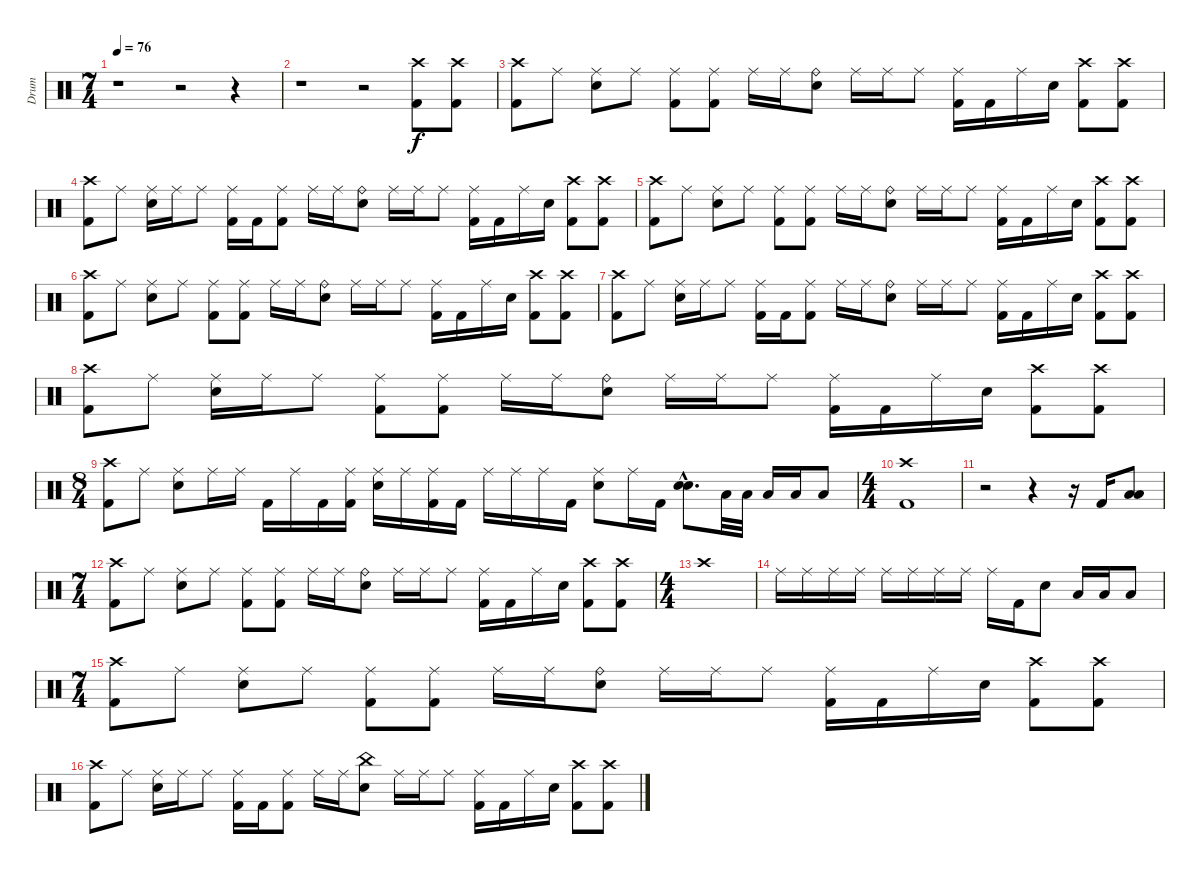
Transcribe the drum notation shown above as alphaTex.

\track ("Drum" "Drum") {instrument percussion}
\staff {score}
\articulation defaults
\ts (7 4)
\tempo 76
\clef neutral
\ks c
r.1{dy f} r.2 r.4 |
r.1 r.2 ("Crash high (hit)" "Kick (hit) 2").8 ("Crash high (hit)" "Kick (hit) 2").8 |
("Crash high (hit)" "Kick (hit) 2").8 "Ride (middle)".8 ("Ride (middle)" "Electric Snare (hit)").8 "Ride (middle)".8 ("Ride (middle)" "Kick (hit) 2").8 ("Ride (middle)" "Kick (hit) 2").8 "Ride (middle)".16 "Ride (middle)".16 ("Ride (bell)" "Electric Snare (hit)").8 "Ride (middle)".16 "Ride (middle)".16 "Ride (middle)".8 ("Ride (middle)" "Kick (hit) 2").16 "Kick (hit) 2".16 "Ride (middle)".16 "Electric Snare (hit)".16 ("Crash high (hit)" "Kick (hit) 2").8 ("Crash high (hit)" "Kick (hit) 2").8 |
("Crash high (hit)" "Kick (hit) 2").8 "Ride (middle)".8 ("Ride (middle)" "Electric Snare (hit)").16 "Ride (middle)".16 "Ride (middle)".8 ("Ride (middle)" "Kick (hit) 2").16 "Kick (hit) 2".16 ("Ride (middle)" "Kick (hit) 2").8 "Ride (middle)".16 "Ride (middle)".16 ("Ride (bell)" "Electric Snare (hit)").8 "Ride (middle)".16 "Ride (middle)".16 "Ride (middle)".8 ("Ride (middle)" "Kick (hit) 2").16 "Kick (hit) 2".16 "Ride (middle)".16 "Electric Snare (hit)".16 ("Crash high (hit)" "Kick (hit) 2").8 ("Crash high (hit)" "Kick (hit) 2").8 |
("Crash high (hit)" "Kick (hit) 2").8 "Ride (middle)".8 ("Ride (middle)" "Electric Snare (hit)").8 "Ride (middle)".8 ("Ride (middle)" "Kick (hit) 2").8 ("Ride (middle)" "Kick (hit) 2").8 "Ride (middle)".16 "Ride (middle)".16 ("Ride (bell)" "Electric Snare (hit)").8 "Ride (middle)".16 "Ride (middle)".16 "Ride (middle)".8 ("Ride (middle)" "Kick (hit) 2").16 "Kick (hit) 2".16 "Ride (middle)".16 "Electric Snare (hit)".16 ("Crash high (hit)" "Kick (hit) 2").8 ("Crash high (hit)" "Kick (hit) 2").8 |
("Crash high (hit)" "Kick (hit) 2").8 "Ride (middle)".8 ("Ride (middle)" "Electric Snare (hit)").8 "Ride (middle)".8 ("Ride (middle)" "Kick (hit) 2").8 ("Ride (middle)" "Kick (hit) 2").8 "Ride (middle)".16 "Ride (middle)".16 ("Ride (bell)" "Electric Snare (hit)").8 "Ride (middle)".16 "Ride (middle)".16 "Ride (middle)".8 ("Ride (middle)" "Kick (hit) 2").16 "Kick (hit) 2".16 "Ride (middle)".16 "Electric Snare (hit)".16 ("Crash high (hit)" "Kick (hit) 2").8 ("Crash high (hit)" "Kick (hit) 2").8 |
("Crash high (hit)" "Kick (hit) 2").8 "Ride (middle)".8 ("Ride (middle)" "Electric Snare (hit)").16 "Ride (middle)".16 "Ride (middle)".8 ("Ride (middle)" "Kick (hit) 2").16 "Kick (hit) 2".16 ("Ride (middle)" "Kick (hit) 2").8 "Ride (middle)".16 "Ride (middle)".16 ("Ride (bell)" "Electric Snare (hit)").8 "Ride (middle)".16 "Ride (middle)".16 "Ride (middle)".8 ("Ride (middle)" "Kick (hit) 2").16 "Kick (hit) 2".16 "Ride (middle)".16 "Electric Snare (hit)".16 ("Crash high (hit)" "Kick (hit) 2").8 ("Crash high (hit)" "Kick (hit) 2").8 |
("Crash high (hit)" "Kick (hit) 2").8 "Ride (middle)".8 ("Ride (middle)" "Electric Snare (hit)").16 "Ride (middle)".16 "Ride (middle)".8 ("Ride (middle)" "Kick (hit) 2").8 ("Ride (middle)" "Kick (hit) 2").8 "Ride (middle)".16 "Ride (middle)".16 ("Ride (bell)" "Electric Snare (hit)").8 "Ride (middle)".16 "Ride (middle)".16 "Ride (middle)".8 ("Ride (middle)" "Kick (hit) 2").16 "Kick (hit) 2".16 "Ride (middle)".16 "Electric Snare (hit)".16 ("Crash high (hit)" "Kick (hit) 2").8 ("Crash high (hit)" "Kick (hit) 2").8 |
\ts (8 4)
("Crash high (hit)" "Kick (hit) 2").8 "Ride (middle)".8 ("Ride (middle)" "Electric Snare (hit)").8 "Ride (middle)".16 "Ride (middle)".16 "Kick (hit) 2".16 "Ride (middle)".16 "Kick (hit) 2".16 ("Ride (middle)" "Kick (hit) 2").16 ("Ride (middle)" "Electric Snare (hit)").16 "Ride (middle)".16 ("Ride (middle)" "Kick (hit) 2").16 "Kick (hit) 2".16 "Ride (middle)".16 "Ride (middle)".16 "Ride (middle)".16 "Kick (hit) 2".16 ("Ride (middle)" "Electric Snare (hit)").8 "Ride (middle)".16 "Kick (hit) 2".16 ("Electric Snare (hit)"{hac} "Electric Snare (hit)"{hac}).8{d} "Low Floor Tom (hit)".32 "Low Floor Tom (hit)".32 "Low Floor Tom (hit)".16 "Low Tom (hit)".16 "Low Tom (hit)".8 |
\ts (4 4)
("Crash high (hit)" "Kick (hit) 2").1 |
r.2 r.4 r.16 "Kick (hit) 2".16 ("Low Tom (hit)" "Low Floor Tom (hit)").8 |
\ts (7 4)
("Crash high (hit)" "Kick (hit) 2").8 "Ride (middle)".8 ("Ride (middle)" "Electric Snare (hit)").8 "Ride (middle)".8 ("Ride (middle)" "Kick (hit) 2").8 ("Ride (middle)" "Kick (hit) 2").8 "Ride (middle)".16 "Ride (middle)".16 ("Ride (bell)" "Electric Snare (hit)").8 "Ride (middle)".16 "Ride (middle)".16 "Ride (middle)".8 ("Ride (middle)" "Kick (hit) 2").16 "Kick (hit) 2".16 "Ride (middle)".16 "Electric Snare (hit)".16 ("Crash high (hit)" "Kick (hit) 2").8 ("Crash high (hit)" "Kick (hit) 2").8 |
\ts (4 4)
"Crash high (hit)".1 |
"Ride (middle)".16 "Ride (middle)".16 "Ride (middle)".16 "Ride (middle)".16 "Ride (middle)".16 "Ride (middle)".16 "Ride (middle)".16 "Ride (middle)".16 "Ride (middle)".16 "Kick (hit) 2".16 "Electric Snare (hit)".8 "Low Floor Tom (hit)".16 "Low Floor Tom (hit)".16 "Low Tom (hit)".8 |
\ts (7 4)
("Crash high (hit)" "Kick (hit) 2").8 "Ride (middle)".8 ("Ride (middle)" "Electric Snare (hit)").8 "Ride (middle)".8 ("Ride (middle)" "Kick (hit) 2").8 ("Ride (middle)" "Kick (hit) 2").8 "Ride (middle)".16 "Ride (middle)".16 ("Ride (bell)" "Electric Snare (hit)").8 "Ride (middle)".16 "Ride (middle)".16 "Ride (middle)".8 ("Ride (middle)" "Kick (hit) 2").16 "Kick (hit) 2".16 "Ride (middle)".16 "Electric Snare (hit)".16 ("Crash high (hit)" "Kick (hit) 2").8 ("Crash high (hit)" "Kick (hit) 2").8 |
("Crash high (hit)" "Kick (hit) 2").8 "Ride (middle)".8 ("Ride (middle)" "Electric Snare (hit)").16 "Ride (middle)".16 "Ride (middle)".8 ("Ride (middle)" "Kick (hit) 2").16 "Kick (hit) 2".16 ("Ride (middle)" "Kick (hit) 2").8 "Ride (middle)".16 "Ride (middle)".16 ("China (hit)" "Electric Snare (hit)").8 "Ride (middle)".16 "Ride (middle)".16 "Ride (middle)".8 ("Ride (middle)" "Kick (hit) 2").16 "Kick (hit) 2".16 "Ride (middle)".16 "Electric Snare (hit)".16 ("Crash high (hit)" "Kick (hit) 2").8 ("Crash high (hit)" "Kick (hit) 2").8
